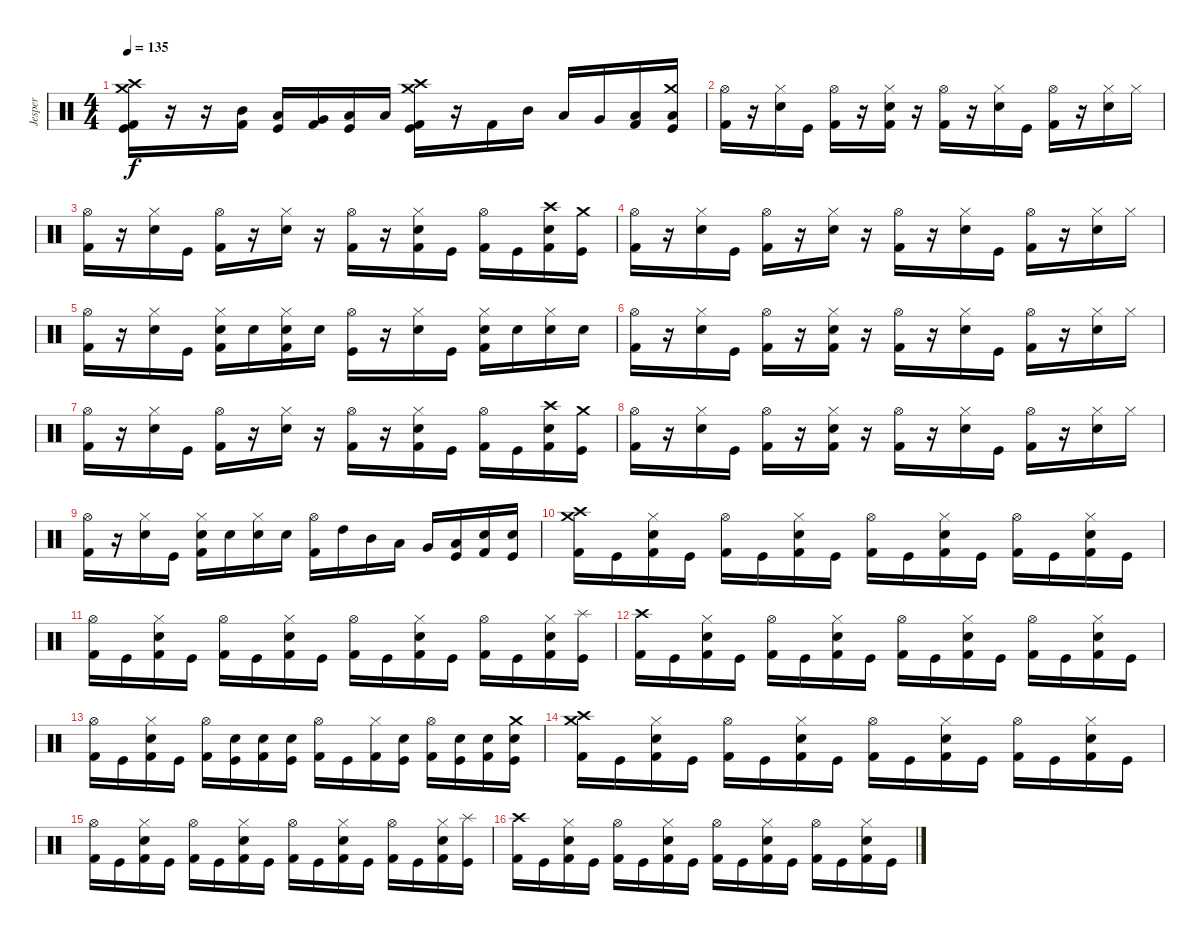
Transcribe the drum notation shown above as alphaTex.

\track ("Jesper" "Jesper") {instrument percussion}
\staff {score}
\articulation defaults
\ts (4 4)
\tempo 135
\clef neutral
\ks c
("Kick (hit) 2" "Kick (hit)" "Crash medium (hit)" "Crash high (hit)").16{dy f} r.16 r.16 ("Kick (hit) 2" "Mid Tom (hit)").16 ("Kick (hit)" "Low Tom (hit)").16 ("Kick (hit) 2" "Very Low Tom (hit)").16 ("Kick (hit)" "Low Floor Tom (hit)").16 "Low Floor Tom (hit)".16 ("Kick (hit) 2" "Kick (hit)" "Crash medium (hit)" "Crash high (hit)").16 r.16 "Kick (hit) 2".16 "Mid Tom (hit)".16 "Low Tom (hit)".16 "Very Low Tom (hit)".16 ("Kick (hit) 2" "Low Floor Tom (hit)").16 ("Kick (hit)" "Low Floor Tom (hit)" "Crash medium (hit)").16 |
("Kick (hit) 2" "Hi-Hat (open)").16 r.16 ("Snare (hit) 2" "Hi-Hat (closed)").16 "Kick (hit)".16 ("Kick (hit) 2" "Hi-Hat (open)").16 r.16 ("Kick (hit) 2" "Snare (hit) 2" "Hi-Hat (closed)").16 r.16 ("Kick (hit) 2" "Hi-Hat (open)").16 r.16 ("Snare (hit) 2" "Hi-Hat (closed)").16 "Kick (hit)".16 ("Kick (hit) 2" "Hi-Hat (open)").16 r.16 ("Snare (hit) 2" "Hi-Hat (closed)").16 "Hi-Hat (closed)".16 |
("Kick (hit) 2" "Hi-Hat (open)").16 r.16 ("Snare (hit) 2" "Hi-Hat (closed)").16 "Kick (hit)".16 ("Kick (hit) 2" "Hi-Hat (open)").16 r.16 ("Snare (hit) 2" "Hi-Hat (closed)").16 r.16 ("Kick (hit) 2" "Hi-Hat (open)").16 r.16 ("Kick (hit) 2" "Snare (hit) 2" "Hi-Hat (closed)").16 "Kick (hit)".16 ("Kick (hit) 2" "Hi-Hat (open)").16 "Kick (hit)".16 ("Kick (hit) 2" "Snare (hit) 2" "Crash high (hit)").16 ("Kick (hit)" "Crash medium (hit)").16 |
("Kick (hit) 2" "Hi-Hat (open)").16 r.16 ("Snare (hit) 2" "Hi-Hat (closed)").16 "Kick (hit)".16 ("Kick (hit) 2" "Hi-Hat (open)").16 r.16 ("Snare (hit) 2" "Hi-Hat (closed)").16 r.16 ("Kick (hit) 2" "Hi-Hat (open)").16 r.16 ("Snare (hit) 2" "Hi-Hat (closed)").16 "Kick (hit)".16 ("Kick (hit) 2" "Hi-Hat (open)").16 r.16 ("Snare (hit) 2" "Hi-Hat (closed)").16 "Hi-Hat (closed)".16 |
("Kick (hit) 2" "Hi-Hat (open)").16 r.16 ("Snare (hit) 2" "Hi-Hat (closed)").16 "Kick (hit)".16 ("Kick (hit) 2" "Snare (hit) 2" "Hi-Hat (closed)").16 "Snare (hit) 2".16 ("Kick (hit) 2" "Snare (hit) 2" "Hi-Hat (closed)").16 "Snare (hit) 2".16 ("Kick (hit)" "Hi-Hat (open)").16 r.16 ("Snare (hit) 2" "Hi-Hat (closed)").16 "Kick (hit)".16 ("Kick (hit) 2" "Snare (hit) 2" "Hi-Hat (closed)").16 "Snare (hit) 2".16 ("Snare (hit) 2" "Hi-Hat (closed)").16 "Snare (hit) 2".16 |
("Kick (hit) 2" "Hi-Hat (open)").16 r.16 ("Snare (hit) 2" "Hi-Hat (closed)").16 "Kick (hit)".16 ("Kick (hit) 2" "Hi-Hat (open)").16 r.16 ("Kick (hit) 2" "Snare (hit) 2" "Hi-Hat (closed)").16 r.16 ("Kick (hit) 2" "Hi-Hat (open)").16 r.16 ("Snare (hit) 2" "Hi-Hat (closed)").16 "Kick (hit)".16 ("Kick (hit) 2" "Hi-Hat (open)").16 r.16 ("Snare (hit) 2" "Hi-Hat (closed)").16 "Hi-Hat (closed)".16 |
("Kick (hit) 2" "Hi-Hat (open)").16 r.16 ("Snare (hit) 2" "Hi-Hat (closed)").16 "Kick (hit)".16 ("Kick (hit) 2" "Hi-Hat (open)").16 r.16 ("Snare (hit) 2" "Hi-Hat (closed)").16 r.16 ("Kick (hit) 2" "Hi-Hat (open)").16 r.16 ("Kick (hit) 2" "Snare (hit) 2" "Hi-Hat (closed)").16 "Kick (hit)".16 ("Kick (hit) 2" "Hi-Hat (open)").16 "Kick (hit)".16 ("Kick (hit) 2" "Snare (hit) 2" "Crash high (hit)").16 ("Kick (hit)" "Crash medium (hit)").16 |
("Kick (hit) 2" "Hi-Hat (open)").16 r.16 ("Snare (hit) 2" "Hi-Hat (closed)").16 "Kick (hit)".16 ("Kick (hit) 2" "Hi-Hat (open)").16 r.16 ("Kick (hit) 2" "Snare (hit) 2" "Hi-Hat (closed)").16 r.16 ("Kick (hit) 2" "Hi-Hat (open)").16 r.16 ("Snare (hit) 2" "Hi-Hat (closed)").16 "Kick (hit)".16 ("Kick (hit) 2" "Hi-Hat (open)").16 r.16 ("Snare (hit) 2" "Hi-Hat (closed)").16 "Hi-Hat (closed)".16 |
("Kick (hit) 2" "Hi-Hat (open)").16 r.16 ("Snare (hit) 2" "Hi-Hat (closed)").16 "Kick (hit)".16 ("Kick (hit) 2" "Snare (hit) 2" "Hi-Hat (closed)").16 "Snare (hit) 2".16 ("Snare (hit) 2" "Hi-Hat (closed)").16 "Snare (hit) 2".16 ("Kick (hit) 2" "Hi-Hat (open)").16 "High Tom (hit)".16 "Mid Tom (hit)".16 "Low Tom (hit)".16 "Very Low Tom (hit)".16 ("Kick (hit)" "Low Floor Tom (hit)").16 ("Kick (hit) 2" "Snare (hit) 2").16 ("Kick (hit)" "Snare (hit) 2").16 |
("Kick (hit) 2" "Crash medium (hit)" "Crash high (hit)").16 "Kick (hit)".16 ("Kick (hit) 2" "Snare (hit) 2" "Hi-Hat (closed)").16 "Kick (hit)".16 ("Kick (hit) 2" "Hi-Hat (open)").16 "Kick (hit)".16 ("Kick (hit) 2" "Snare (hit) 2" "Hi-Hat (closed)").16 "Kick (hit)".16 ("Kick (hit) 2" "Hi-Hat (open)").16 "Kick (hit)".16 ("Kick (hit) 2" "Snare (hit) 2" "Hi-Hat (closed)").16 "Kick (hit)".16 ("Kick (hit) 2" "Hi-Hat (open)").16 "Kick (hit)".16 ("Kick (hit) 2" "Snare (hit) 2" "Hi-Hat (closed)").16 "Kick (hit)".16 |
("Kick (hit) 2" "Hi-Hat (open)").16 "Kick (hit)".16 ("Kick (hit) 2" "Snare (hit) 2" "Hi-Hat (closed)").16 "Kick (hit)".16 ("Kick (hit) 2" "Hi-Hat (open)").16 "Kick (hit)".16 ("Kick (hit) 2" "Snare (hit) 2" "Hi-Hat (closed)").16 "Kick (hit)".16 ("Kick (hit) 2" "Hi-Hat (open)").16 "Kick (hit)".16 ("Kick (hit) 2" "Snare (hit) 2" "Hi-Hat (closed)").16 "Kick (hit)".16 ("Kick (hit) 2" "Hi-Hat (open)").16 "Kick (hit)".16 ("Kick (hit) 2" "Snare (hit) 2" "Hi-Hat (closed)").16 ("Kick (hit)" "Splash (hit)").16 |
("Kick (hit) 2" "Crash high (hit)").16 "Kick (hit)".16 ("Kick (hit) 2" "Snare (hit) 2" "Hi-Hat (closed)").16 "Kick (hit)".16 ("Kick (hit) 2" "Hi-Hat (open)").16 "Kick (hit)".16 ("Kick (hit) 2" "Snare (hit) 2" "Hi-Hat (closed)").16 "Kick (hit)".16 ("Kick (hit) 2" "Hi-Hat (open)").16 "Kick (hit)".16 ("Kick (hit) 2" "Snare (hit) 2" "Hi-Hat (closed)").16 "Kick (hit)".16 ("Kick (hit) 2" "Hi-Hat (open)").16 "Kick (hit)".16 ("Kick (hit) 2" "Snare (hit) 2" "Hi-Hat (closed)").16 "Kick (hit)".16 |
("Kick (hit) 2" "Hi-Hat (open)").16 "Kick (hit)".16 ("Kick (hit) 2" "Snare (hit) 2" "Hi-Hat (closed)").16 "Kick (hit)".16 ("Kick (hit) 2" "Hi-Hat (open)").16 ("Kick (hit)" "Snare (hit) 2").16 ("Kick (hit) 2" "Snare (hit) 2").16 ("Kick (hit)" "Snare (hit) 2").16 ("Kick (hit) 2" "Hi-Hat (open)").16 "Kick (hit)".16 ("Kick (hit) 2" "Hi-Hat (closed)").16 ("Kick (hit)" "Snare (hit) 2").16 ("Kick (hit) 2" "Hi-Hat (open)").16 ("Kick (hit)" "Snare (hit) 2").16 ("Kick (hit) 2" "Snare (hit) 2").16 ("Kick (hit)" "Snare (hit) 2" "Crash medium (hit)").16 |
("Kick (hit) 2" "Crash high (hit)" "Crash medium (hit)").16 "Kick (hit)".16 ("Kick (hit) 2" "Snare (hit) 2" "Hi-Hat (closed)").16 "Kick (hit)".16 ("Kick (hit) 2" "Hi-Hat (open)").16 "Kick (hit)".16 ("Kick (hit) 2" "Snare (hit) 2" "Hi-Hat (closed)").16 "Kick (hit)".16 ("Kick (hit) 2" "Hi-Hat (open)").16 "Kick (hit)".16 ("Kick (hit) 2" "Snare (hit) 2" "Hi-Hat (closed)").16 "Kick (hit)".16 ("Kick (hit) 2" "Hi-Hat (open)").16 "Kick (hit)".16 ("Kick (hit) 2" "Snare (hit) 2" "Hi-Hat (closed)").16 "Kick (hit)".16 |
("Kick (hit) 2" "Hi-Hat (open)").16 "Kick (hit)".16 ("Kick (hit) 2" "Snare (hit) 2" "Hi-Hat (closed)").16 "Kick (hit)".16 ("Kick (hit) 2" "Hi-Hat (open)").16 "Kick (hit)".16 ("Kick (hit) 2" "Snare (hit) 2" "Hi-Hat (closed)").16 "Kick (hit)".16 ("Kick (hit) 2" "Hi-Hat (open)").16 "Kick (hit)".16 ("Kick (hit) 2" "Snare (hit) 2" "Hi-Hat (closed)").16 "Kick (hit)".16 ("Kick (hit) 2" "Hi-Hat (open)").16 "Kick (hit)".16 ("Kick (hit) 2" "Snare (hit) 2" "Hi-Hat (closed)").16 ("Kick (hit)" "Splash (hit)").16 |
("Kick (hit) 2" "Crash high (hit)").16 "Kick (hit)".16 ("Kick (hit) 2" "Snare (hit) 2" "Hi-Hat (closed)").16 "Kick (hit)".16 ("Kick (hit) 2" "Hi-Hat (open)").16 "Kick (hit)".16 ("Kick (hit) 2" "Snare (hit) 2" "Hi-Hat (closed)").16 "Kick (hit)".16 ("Kick (hit) 2" "Hi-Hat (open)").16 "Kick (hit)".16 ("Kick (hit) 2" "Snare (hit) 2" "Hi-Hat (closed)").16 "Kick (hit)".16 ("Kick (hit) 2" "Hi-Hat (open)").16 "Kick (hit)".16 ("Kick (hit) 2" "Snare (hit) 2" "Hi-Hat (closed)").16 "Kick (hit)".16
